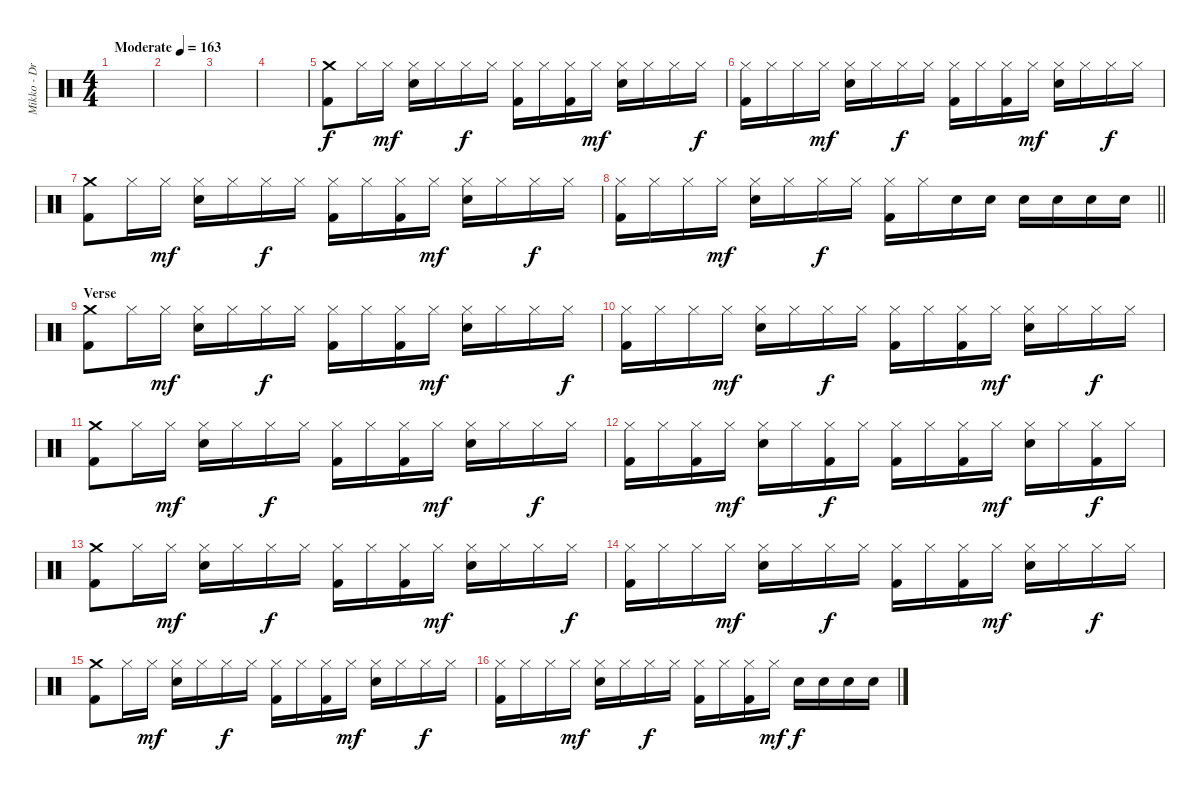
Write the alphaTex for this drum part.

\track ("Mikko - Drums" "Mikko - Dr") {instrument percussion}
\staff {score}
\articulation defaults
\ts (4 4)
\tempo (163 "Moderate")
\clef neutral
\ks c
|
|
|
|
("Crash medium (hit)" "Kick (hit) 2").8 "Hi-Hat (closed)".16 "Hi-Hat (closed)".16{dy mf} ("Hi-Hat (closed)" "Snare (hit) 2").16 "Hi-Hat (closed)".16 "Hi-Hat (closed)".16{dy f} "Hi-Hat (closed)".16 ("Hi-Hat (closed)" "Kick (hit) 2").16 "Hi-Hat (closed)".16 ("Hi-Hat (closed)" "Kick (hit) 2").16 "Hi-Hat (closed)".16{dy mf} ("Hi-Hat (closed)" "Snare (hit) 2").16 "Hi-Hat (closed)".16 "Hi-Hat (closed)".16 "Hi-Hat (closed)".16{dy f} |
("Hi-Hat (closed)" "Kick (hit) 2").16 "Hi-Hat (closed)".16 "Hi-Hat (closed)".16 "Hi-Hat (closed)".16{dy mf} ("Hi-Hat (closed)" "Snare (hit) 2").16 "Hi-Hat (closed)".16 "Hi-Hat (closed)".16{dy f} "Hi-Hat (closed)".16 ("Hi-Hat (closed)" "Kick (hit) 2").16 "Hi-Hat (closed)".16 ("Hi-Hat (closed)" "Kick (hit) 2").16 "Hi-Hat (closed)".16{dy mf} ("Hi-Hat (closed)" "Snare (hit) 2").16 "Hi-Hat (closed)".16 "Hi-Hat (closed)".16{dy f} "Hi-Hat (closed)".16 |
("Crash medium (hit)" "Kick (hit) 2").8 "Hi-Hat (closed)".16 "Hi-Hat (closed)".16{dy mf} ("Hi-Hat (closed)" "Snare (hit) 2").16 "Hi-Hat (closed)".16 "Hi-Hat (closed)".16{dy f} "Hi-Hat (closed)".16 ("Hi-Hat (closed)" "Kick (hit) 2").16 "Hi-Hat (closed)".16 ("Hi-Hat (closed)" "Kick (hit) 2").16 "Hi-Hat (closed)".16{dy mf} ("Hi-Hat (closed)" "Snare (hit) 2").16 "Hi-Hat (closed)".16 "Hi-Hat (closed)".16{dy f} "Hi-Hat (closed)".16 |
\barLineRight lightlight
("Hi-Hat (closed)" "Kick (hit) 2").16 "Hi-Hat (closed)".16 "Hi-Hat (closed)".16 "Hi-Hat (closed)".16{dy mf} ("Hi-Hat (closed)" "Snare (hit) 2").16 "Hi-Hat (closed)".16 "Hi-Hat (closed)".16{dy f} "Hi-Hat (closed)".16 ("Hi-Hat (closed)" "Kick (hit) 2").16 "Hi-Hat (closed)".16 "Snare (hit) 2".16 "Snare (hit) 2".16 "Snare (hit) 2".16 "Snare (hit) 2".16 "Snare (hit) 2".16 "Snare (hit) 2".16 |
\section ("" "Verse")
("Crash medium (hit)" "Kick (hit) 2").8 "Hi-Hat (closed)".16 "Hi-Hat (closed)".16{dy mf} ("Hi-Hat (closed)" "Snare (hit) 2").16 "Hi-Hat (closed)".16 "Hi-Hat (closed)".16{dy f} "Hi-Hat (closed)".16 ("Hi-Hat (closed)" "Kick (hit) 2").16 "Hi-Hat (closed)".16 ("Hi-Hat (closed)" "Kick (hit) 2").16 "Hi-Hat (closed)".16{dy mf} ("Hi-Hat (closed)" "Snare (hit) 2").16 "Hi-Hat (closed)".16 "Hi-Hat (closed)".16 "Hi-Hat (closed)".16{dy f} |
("Hi-Hat (closed)" "Kick (hit) 2").16 "Hi-Hat (closed)".16 "Hi-Hat (closed)".16 "Hi-Hat (closed)".16{dy mf} ("Hi-Hat (closed)" "Snare (hit) 2").16 "Hi-Hat (closed)".16 "Hi-Hat (closed)".16{dy f} "Hi-Hat (closed)".16 ("Hi-Hat (closed)" "Kick (hit) 2").16 "Hi-Hat (closed)".16 ("Hi-Hat (closed)" "Kick (hit) 2").16 "Hi-Hat (closed)".16{dy mf} ("Hi-Hat (closed)" "Snare (hit) 2").16 "Hi-Hat (closed)".16 "Hi-Hat (closed)".16{dy f} "Hi-Hat (closed)".16 |
("Crash medium (hit)" "Kick (hit) 2").8 "Hi-Hat (closed)".16 "Hi-Hat (closed)".16{dy mf} ("Hi-Hat (closed)" "Snare (hit) 2").16 "Hi-Hat (closed)".16 "Hi-Hat (closed)".16{dy f} "Hi-Hat (closed)".16 ("Hi-Hat (closed)" "Kick (hit) 2").16 "Hi-Hat (closed)".16 ("Hi-Hat (closed)" "Kick (hit) 2").16 "Hi-Hat (closed)".16{dy mf} ("Hi-Hat (closed)" "Snare (hit) 2").16 "Hi-Hat (closed)".16 "Hi-Hat (closed)".16{dy f} "Hi-Hat (closed)".16 |
("Hi-Hat (closed)" "Kick (hit) 2").16 "Hi-Hat (closed)".16 ("Hi-Hat (closed)" "Kick (hit) 2").16 "Hi-Hat (closed)".16{dy mf} ("Hi-Hat (closed)" "Snare (hit) 2").16 "Hi-Hat (closed)".16 ("Hi-Hat (closed)" "Kick (hit) 2").16{dy f} "Hi-Hat (closed)".16 ("Hi-Hat (closed)" "Kick (hit) 2").16 "Hi-Hat (closed)".16 ("Hi-Hat (closed)" "Kick (hit) 2").16 "Hi-Hat (closed)".16{dy mf} ("Hi-Hat (closed)" "Snare (hit) 2").16 "Hi-Hat (closed)".16 ("Hi-Hat (closed)" "Kick (hit) 2").16{dy f} "Hi-Hat (closed)".16 |
("Crash medium (hit)" "Kick (hit) 2").8 "Hi-Hat (closed)".16 "Hi-Hat (closed)".16{dy mf} ("Hi-Hat (closed)" "Snare (hit) 2").16 "Hi-Hat (closed)".16 "Hi-Hat (closed)".16{dy f} "Hi-Hat (closed)".16 ("Hi-Hat (closed)" "Kick (hit) 2").16 "Hi-Hat (closed)".16 ("Hi-Hat (closed)" "Kick (hit) 2").16 "Hi-Hat (closed)".16{dy mf} ("Hi-Hat (closed)" "Snare (hit) 2").16 "Hi-Hat (closed)".16 "Hi-Hat (closed)".16 "Hi-Hat (closed)".16{dy f} |
("Hi-Hat (closed)" "Kick (hit) 2").16 "Hi-Hat (closed)".16 "Hi-Hat (closed)".16 "Hi-Hat (closed)".16{dy mf} ("Hi-Hat (closed)" "Snare (hit) 2").16 "Hi-Hat (closed)".16 "Hi-Hat (closed)".16{dy f} "Hi-Hat (closed)".16 ("Hi-Hat (closed)" "Kick (hit) 2").16 "Hi-Hat (closed)".16 ("Hi-Hat (closed)" "Kick (hit) 2").16 "Hi-Hat (closed)".16{dy mf} ("Hi-Hat (closed)" "Snare (hit) 2").16 "Hi-Hat (closed)".16 "Hi-Hat (closed)".16{dy f} "Hi-Hat (closed)".16 |
("Crash medium (hit)" "Kick (hit) 2").8 "Hi-Hat (closed)".16 "Hi-Hat (closed)".16{dy mf} ("Hi-Hat (closed)" "Snare (hit) 2").16 "Hi-Hat (closed)".16 "Hi-Hat (closed)".16{dy f} "Hi-Hat (closed)".16 ("Hi-Hat (closed)" "Kick (hit) 2").16 "Hi-Hat (closed)".16 ("Hi-Hat (closed)" "Kick (hit) 2").16 "Hi-Hat (closed)".16{dy mf} ("Hi-Hat (closed)" "Snare (hit) 2").16 "Hi-Hat (closed)".16 "Hi-Hat (closed)".16{dy f} "Hi-Hat (closed)".16 |
("Hi-Hat (closed)" "Kick (hit) 2").16 "Hi-Hat (closed)".16 "Hi-Hat (closed)".16 "Hi-Hat (closed)".16{dy mf} ("Hi-Hat (closed)" "Snare (hit) 2").16 "Hi-Hat (closed)".16 "Hi-Hat (closed)".16{dy f} "Hi-Hat (closed)".16 ("Hi-Hat (closed)" "Kick (hit) 2").16 "Hi-Hat (closed)".16 ("Hi-Hat (closed)" "Kick (hit) 2").16 "Hi-Hat (closed)".16{dy mf} "Snare (hit) 2".16{dy f} "Snare (hit) 2".16 "Snare (hit) 2".16 "Snare (hit) 2".16
